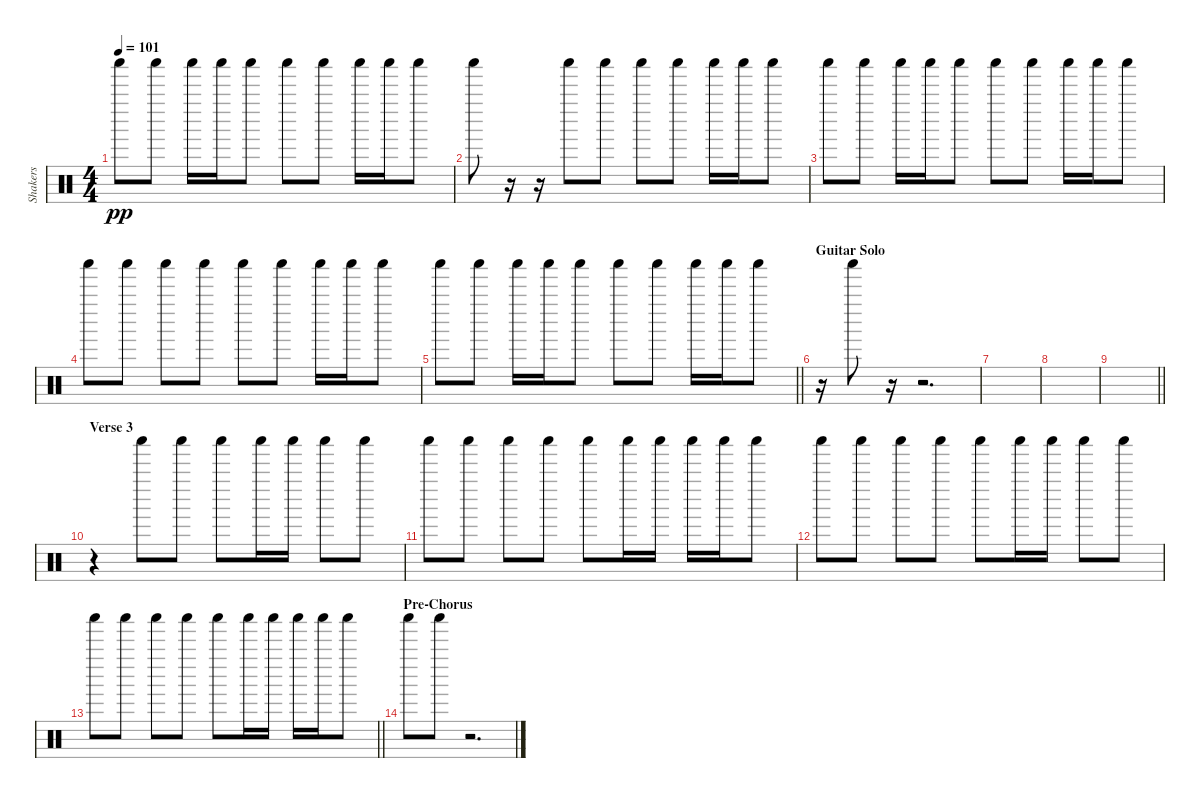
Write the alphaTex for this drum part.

\track ("Shakers" "Shakers") {instrument percussion}
\staff {score}
\articulation defaults
\ts (4 4)
\tempo 101
\clef neutral
\ks c "Shaker (hit)".8{dy pp} "Shaker (hit)".8 "Shaker (hit)".16 "Shaker (hit)".16 "Shaker (hit)".8 "Shaker (hit)".8 "Shaker (hit)".8 "Shaker (hit)".16 "Shaker (hit)".16 "Shaker (hit)".8
|
"Shaker (hit)".8 r.16 r.16 "Shaker (hit)".8 "Shaker (hit)".8 "Shaker (hit)".8 "Shaker (hit)".8 "Shaker (hit)".16 "Shaker (hit)".16 "Shaker (hit)".8 |
"Shaker (hit)".8 "Shaker (hit)".8 "Shaker (hit)".16 "Shaker (hit)".16 "Shaker (hit)".8 "Shaker (hit)".8 "Shaker (hit)".8 "Shaker (hit)".16 "Shaker (hit)".16 "Shaker (hit)".8 |
"Shaker (hit)".8 "Shaker (hit)".8 "Shaker (hit)".8 "Shaker (hit)".8 "Shaker (hit)".8 "Shaker (hit)".8 "Shaker (hit)".16 "Shaker (hit)".16 "Shaker (hit)".8 |
\barLineRight lightlight "Shaker (hit)".8 "Shaker (hit)".8 "Shaker (hit)".16 "Shaker (hit)".16 "Shaker (hit)".8 "Shaker (hit)".8 "Shaker (hit)".8 "Shaker (hit)".16 "Shaker (hit)".16 "Shaker (hit)".8
|
\section ("" "Guitar Solo")
r.16 "Shaker (hit)".8 r.16 r.2{d} |
|
|
\barLineRight lightlight
|
\section ("" "Verse 3")
r.4 "Shaker (hit)".8 "Shaker (hit)".8 "Shaker (hit)".8 "Shaker (hit)".16 "Shaker (hit)".16 "Shaker (hit)".8 "Shaker (hit)".8 |
"Shaker (hit)".8 "Shaker (hit)".8 "Shaker (hit)".8 "Shaker (hit)".8 "Shaker (hit)".8 "Shaker (hit)".16 "Shaker (hit)".16 "Shaker (hit)".16 "Shaker (hit)".16 "Shaker (hit)".8 |
"Shaker (hit)".8 "Shaker (hit)".8 "Shaker (hit)".8 "Shaker (hit)".8 "Shaker (hit)".8 "Shaker (hit)".16 "Shaker (hit)".16 "Shaker (hit)".8 "Shaker (hit)".8 |
\barLineRight lightlight "Shaker (hit)".8 "Shaker (hit)".8 "Shaker (hit)".8 "Shaker (hit)".8 "Shaker (hit)".8 "Shaker (hit)".16 "Shaker (hit)".16 "Shaker (hit)".16 "Shaker (hit)".16 "Shaker (hit)".8
|
\section ("" "Pre-Chorus")
"Shaker (hit)".8 "Shaker (hit)".8 r.2{d}
